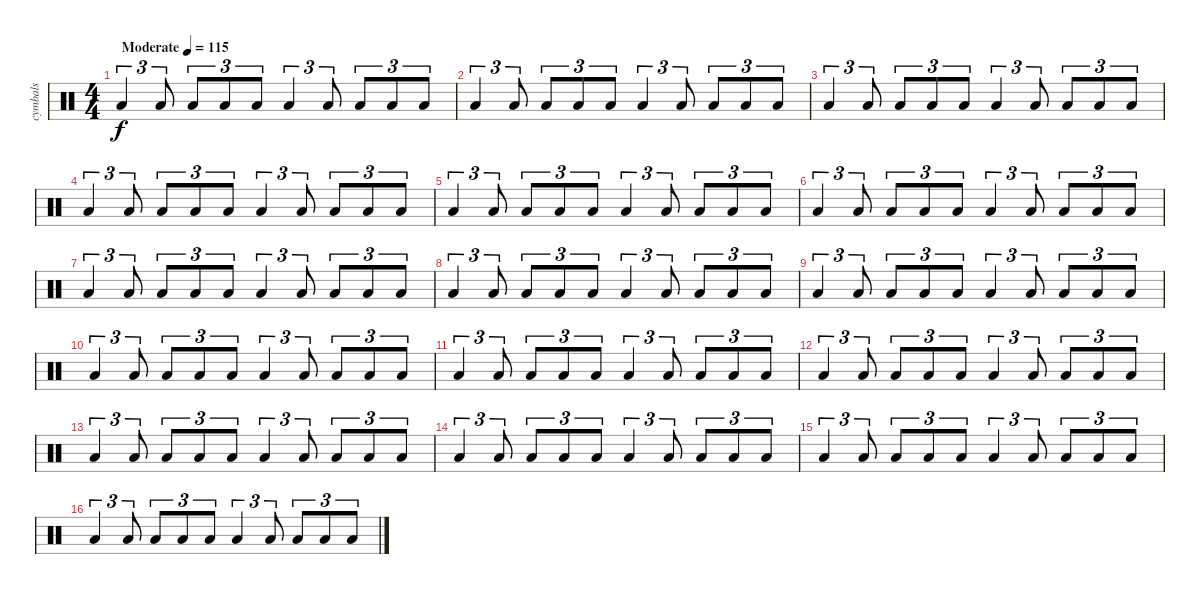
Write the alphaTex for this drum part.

\track ("cymbals" "cymbals") {instrument percussion}
\staff {score}
\articulation defaults
\ts (4 4)
\tempo (115 "Moderate")
\clef neutral
\ks c "Low Floor Tom (hit)".4{tu (3 2) dy f} "Low Floor Tom (hit)".8{tu (3 2)} "Low Floor Tom (hit)".8{tu (3 2)} "Low Floor Tom (hit)".8{tu (3 2)} "Low Floor Tom (hit)".8{tu (3 2)} "Low Floor Tom (hit)".4{tu (3 2)} "Low Floor Tom (hit)".8{tu (3 2)} "Low Floor Tom (hit)".8{tu (3 2)} "Low Floor Tom (hit)".8{tu (3 2)} "Low Floor Tom (hit)".8{tu (3 2)}
|
"Low Floor Tom (hit)".4{tu (3 2)} "Low Floor Tom (hit)".8{tu (3 2)} "Low Floor Tom (hit)".8{tu (3 2)} "Low Floor Tom (hit)".8{tu (3 2)} "Low Floor Tom (hit)".8{tu (3 2)} "Low Floor Tom (hit)".4{tu (3 2)} "Low Floor Tom (hit)".8{tu (3 2)} "Low Floor Tom (hit)".8{tu (3 2)} "Low Floor Tom (hit)".8{tu (3 2)} "Low Floor Tom (hit)".8{tu (3 2)} |
"Low Floor Tom (hit)".4{tu (3 2)} "Low Floor Tom (hit)".8{tu (3 2)} "Low Floor Tom (hit)".8{tu (3 2)} "Low Floor Tom (hit)".8{tu (3 2)} "Low Floor Tom (hit)".8{tu (3 2)} "Low Floor Tom (hit)".4{tu (3 2)} "Low Floor Tom (hit)".8{tu (3 2)} "Low Floor Tom (hit)".8{tu (3 2)} "Low Floor Tom (hit)".8{tu (3 2)} "Low Floor Tom (hit)".8{tu (3 2)} |
"Low Floor Tom (hit)".4{tu (3 2)} "Low Floor Tom (hit)".8{tu (3 2)} "Low Floor Tom (hit)".8{tu (3 2)} "Low Floor Tom (hit)".8{tu (3 2)} "Low Floor Tom (hit)".8{tu (3 2)} "Low Floor Tom (hit)".4{tu (3 2)} "Low Floor Tom (hit)".8{tu (3 2)} "Low Floor Tom (hit)".8{tu (3 2)} "Low Floor Tom (hit)".8{tu (3 2)} "Low Floor Tom (hit)".8{tu (3 2)} |
"Low Floor Tom (hit)".4{tu (3 2)} "Low Floor Tom (hit)".8{tu (3 2)} "Low Floor Tom (hit)".8{tu (3 2)} "Low Floor Tom (hit)".8{tu (3 2)} "Low Floor Tom (hit)".8{tu (3 2)} "Low Floor Tom (hit)".4{tu (3 2)} "Low Floor Tom (hit)".8{tu (3 2)} "Low Floor Tom (hit)".8{tu (3 2)} "Low Floor Tom (hit)".8{tu (3 2)} "Low Floor Tom (hit)".8{tu (3 2)} |
"Low Floor Tom (hit)".4{tu (3 2)} "Low Floor Tom (hit)".8{tu (3 2)} "Low Floor Tom (hit)".8{tu (3 2)} "Low Floor Tom (hit)".8{tu (3 2)} "Low Floor Tom (hit)".8{tu (3 2)} "Low Floor Tom (hit)".4{tu (3 2)} "Low Floor Tom (hit)".8{tu (3 2)} "Low Floor Tom (hit)".8{tu (3 2)} "Low Floor Tom (hit)".8{tu (3 2)} "Low Floor Tom (hit)".8{tu (3 2)} |
"Low Floor Tom (hit)".4{tu (3 2)} "Low Floor Tom (hit)".8{tu (3 2)} "Low Floor Tom (hit)".8{tu (3 2)} "Low Floor Tom (hit)".8{tu (3 2)} "Low Floor Tom (hit)".8{tu (3 2)} "Low Floor Tom (hit)".4{tu (3 2)} "Low Floor Tom (hit)".8{tu (3 2)} "Low Floor Tom (hit)".8{tu (3 2)} "Low Floor Tom (hit)".8{tu (3 2)} "Low Floor Tom (hit)".8{tu (3 2)} |
"Low Floor Tom (hit)".4{tu (3 2)} "Low Floor Tom (hit)".8{tu (3 2)} "Low Floor Tom (hit)".8{tu (3 2)} "Low Floor Tom (hit)".8{tu (3 2)} "Low Floor Tom (hit)".8{tu (3 2)} "Low Floor Tom (hit)".4{tu (3 2)} "Low Floor Tom (hit)".8{tu (3 2)} "Low Floor Tom (hit)".8{tu (3 2)} "Low Floor Tom (hit)".8{tu (3 2)} "Low Floor Tom (hit)".8{tu (3 2)} |
"Low Floor Tom (hit)".4{tu (3 2)} "Low Floor Tom (hit)".8{tu (3 2)} "Low Floor Tom (hit)".8{tu (3 2)} "Low Floor Tom (hit)".8{tu (3 2)} "Low Floor Tom (hit)".8{tu (3 2)} "Low Floor Tom (hit)".4{tu (3 2)} "Low Floor Tom (hit)".8{tu (3 2)} "Low Floor Tom (hit)".8{tu (3 2)} "Low Floor Tom (hit)".8{tu (3 2)} "Low Floor Tom (hit)".8{tu (3 2)} |
"Low Floor Tom (hit)".4{tu (3 2)} "Low Floor Tom (hit)".8{tu (3 2)} "Low Floor Tom (hit)".8{tu (3 2)} "Low Floor Tom (hit)".8{tu (3 2)} "Low Floor Tom (hit)".8{tu (3 2)} "Low Floor Tom (hit)".4{tu (3 2)} "Low Floor Tom (hit)".8{tu (3 2)} "Low Floor Tom (hit)".8{tu (3 2)} "Low Floor Tom (hit)".8{tu (3 2)} "Low Floor Tom (hit)".8{tu (3 2)} |
"Low Floor Tom (hit)".4{tu (3 2)} "Low Floor Tom (hit)".8{tu (3 2)} "Low Floor Tom (hit)".8{tu (3 2)} "Low Floor Tom (hit)".8{tu (3 2)} "Low Floor Tom (hit)".8{tu (3 2)} "Low Floor Tom (hit)".4{tu (3 2)} "Low Floor Tom (hit)".8{tu (3 2)} "Low Floor Tom (hit)".8{tu (3 2)} "Low Floor Tom (hit)".8{tu (3 2)} "Low Floor Tom (hit)".8{tu (3 2)} |
"Low Floor Tom (hit)".4{tu (3 2)} "Low Floor Tom (hit)".8{tu (3 2)} "Low Floor Tom (hit)".8{tu (3 2)} "Low Floor Tom (hit)".8{tu (3 2)} "Low Floor Tom (hit)".8{tu (3 2)} "Low Floor Tom (hit)".4{tu (3 2)} "Low Floor Tom (hit)".8{tu (3 2)} "Low Floor Tom (hit)".8{tu (3 2)} "Low Floor Tom (hit)".8{tu (3 2)} "Low Floor Tom (hit)".8{tu (3 2)} |
"Low Floor Tom (hit)".4{tu (3 2)} "Low Floor Tom (hit)".8{tu (3 2)} "Low Floor Tom (hit)".8{tu (3 2)} "Low Floor Tom (hit)".8{tu (3 2)} "Low Floor Tom (hit)".8{tu (3 2)} "Low Floor Tom (hit)".4{tu (3 2)} "Low Floor Tom (hit)".8{tu (3 2)} "Low Floor Tom (hit)".8{tu (3 2)} "Low Floor Tom (hit)".8{tu (3 2)} "Low Floor Tom (hit)".8{tu (3 2)} |
"Low Floor Tom (hit)".4{tu (3 2)} "Low Floor Tom (hit)".8{tu (3 2)} "Low Floor Tom (hit)".8{tu (3 2)} "Low Floor Tom (hit)".8{tu (3 2)} "Low Floor Tom (hit)".8{tu (3 2)} "Low Floor Tom (hit)".4{tu (3 2)} "Low Floor Tom (hit)".8{tu (3 2)} "Low Floor Tom (hit)".8{tu (3 2)} "Low Floor Tom (hit)".8{tu (3 2)} "Low Floor Tom (hit)".8{tu (3 2)} |
"Low Floor Tom (hit)".4{tu (3 2)} "Low Floor Tom (hit)".8{tu (3 2)} "Low Floor Tom (hit)".8{tu (3 2)} "Low Floor Tom (hit)".8{tu (3 2)} "Low Floor Tom (hit)".8{tu (3 2)} "Low Floor Tom (hit)".4{tu (3 2)} "Low Floor Tom (hit)".8{tu (3 2)} "Low Floor Tom (hit)".8{tu (3 2)} "Low Floor Tom (hit)".8{tu (3 2)} "Low Floor Tom (hit)".8{tu (3 2)} |
"Low Floor Tom (hit)".4{tu (3 2)} "Low Floor Tom (hit)".8{tu (3 2)} "Low Floor Tom (hit)".8{tu (3 2)} "Low Floor Tom (hit)".8{tu (3 2)} "Low Floor Tom (hit)".8{tu (3 2)} "Low Floor Tom (hit)".4{tu (3 2)} "Low Floor Tom (hit)".8{tu (3 2)} "Low Floor Tom (hit)".8{tu (3 2)} "Low Floor Tom (hit)".8{tu (3 2)} "Low Floor Tom (hit)".8{tu (3 2)}
